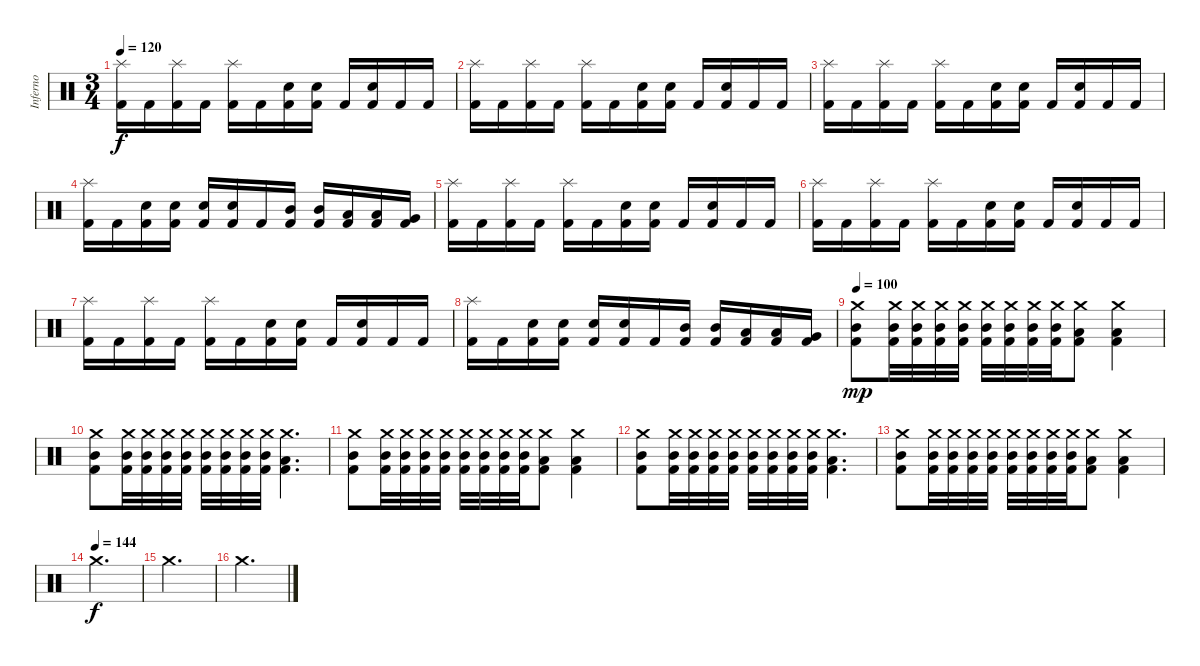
\track ("Inferno" "Inferno") {instrument percussion}
\staff {score}
\articulation defaults
\ts (3 4)
\tempo 120
\clef neutral
\ks c
("Splash (hit)" "Kick (hit) 2").16{dy f} "Kick (hit) 2".16 ("Splash (hit)" "Kick (hit) 2").16 "Kick (hit) 2".16 ("Splash (hit)" "Kick (hit) 2").16 "Kick (hit) 2".16 ("Electric Snare (hit)" "Kick (hit) 2").16 ("Electric Snare (hit)" "Kick (hit) 2").16 "Kick (hit) 2".16 ("Electric Snare (hit)" "Kick (hit) 2").16 "Kick (hit) 2".16 "Kick (hit) 2".16 |
("Splash (hit)" "Kick (hit) 2").16 "Kick (hit) 2".16 ("Splash (hit)" "Kick (hit) 2").16 "Kick (hit) 2".16 ("Splash (hit)" "Kick (hit) 2").16 "Kick (hit) 2".16 ("Electric Snare (hit)" "Kick (hit) 2").16 ("Electric Snare (hit)" "Kick (hit) 2").16 "Kick (hit) 2".16 ("Electric Snare (hit)" "Kick (hit) 2").16 "Kick (hit) 2".16 "Kick (hit) 2".16 |
("Splash (hit)" "Kick (hit) 2").16 "Kick (hit) 2".16 ("Splash (hit)" "Kick (hit) 2").16 "Kick (hit) 2".16 ("Splash (hit)" "Kick (hit) 2").16 "Kick (hit) 2".16 ("Electric Snare (hit)" "Kick (hit) 2").16 ("Electric Snare (hit)" "Kick (hit) 2").16 "Kick (hit) 2".16 ("Electric Snare (hit)" "Kick (hit) 2").16 "Kick (hit) 2".16 "Kick (hit) 2".16 |
("Splash (hit)" "Kick (hit) 2").16 "Kick (hit) 2".16 ("Electric Snare (hit)" "Kick (hit) 2").16 ("Electric Snare (hit)" "Kick (hit) 2").16 ("Electric Snare (hit)" "Kick (hit) 2").16 ("Electric Snare (hit)" "Kick (hit) 2").16 "Kick (hit) 2".16 ("Mid Tom (hit)" "Kick (hit) 2").16 ("Mid Tom (hit)" "Kick (hit) 2").16 ("Low Tom (hit)" "Kick (hit) 2").16 ("Low Tom (hit)" "Kick (hit) 2").16 ("Very Low Tom (hit)" "Kick (hit) 2").16 |
("Splash (hit)" "Kick (hit) 2").16 "Kick (hit) 2".16 ("Splash (hit)" "Kick (hit) 2").16 "Kick (hit) 2".16 ("Splash (hit)" "Kick (hit) 2").16 "Kick (hit) 2".16 ("Electric Snare (hit)" "Kick (hit) 2").16 ("Electric Snare (hit)" "Kick (hit) 2").16 "Kick (hit) 2".16 ("Electric Snare (hit)" "Kick (hit) 2").16 "Kick (hit) 2".16 "Kick (hit) 2".16 |
("Splash (hit)" "Kick (hit) 2").16 "Kick (hit) 2".16 ("Splash (hit)" "Kick (hit) 2").16 "Kick (hit) 2".16 ("Splash (hit)" "Kick (hit) 2").16 "Kick (hit) 2".16 ("Electric Snare (hit)" "Kick (hit) 2").16 ("Electric Snare (hit)" "Kick (hit) 2").16 "Kick (hit) 2".16 ("Electric Snare (hit)" "Kick (hit) 2").16 "Kick (hit) 2".16 "Kick (hit) 2".16 |
("Splash (hit)" "Kick (hit) 2").16 "Kick (hit) 2".16 ("Splash (hit)" "Kick (hit) 2").16 "Kick (hit) 2".16 ("Splash (hit)" "Kick (hit) 2").16 "Kick (hit) 2".16 ("Electric Snare (hit)" "Kick (hit) 2").16 ("Electric Snare (hit)" "Kick (hit) 2").16 "Kick (hit) 2".16 ("Electric Snare (hit)" "Kick (hit) 2").16 "Kick (hit) 2".16 "Kick (hit) 2".16 |
("Splash (hit)" "Kick (hit) 2").16 "Kick (hit) 2".16 ("Electric Snare (hit)" "Kick (hit) 2").16 ("Electric Snare (hit)" "Kick (hit) 2").16 ("Electric Snare (hit)" "Kick (hit) 2").16 ("Electric Snare (hit)" "Kick (hit) 2").16 "Kick (hit) 2".16 ("Mid Tom (hit)" "Kick (hit) 2").16 ("Mid Tom (hit)" "Kick (hit) 2").16 ("Low Tom (hit)" "Kick (hit) 2").16 ("Low Tom (hit)" "Kick (hit) 2").16 ("Very Low Tom (hit)" "Kick (hit) 2").16 |
\tempo 100
("Crash medium (hit)" "Mid Tom (hit)" "Kick (hit) 2").8{dy mp} ("Crash medium (hit)" "Mid Tom (hit)" "Kick (hit) 2").32 ("Crash medium (hit)" "Mid Tom (hit)" "Kick (hit) 2").32 ("Crash medium (hit)" "Mid Tom (hit)" "Kick (hit) 2").32 ("Crash medium (hit)" "Mid Tom (hit)" "Kick (hit) 2").32 ("Crash medium (hit)" "Mid Tom (hit)" "Kick (hit) 2").32 ("Crash medium (hit)" "Mid Tom (hit)" "Kick (hit) 2").32 ("Crash medium (hit)" "Mid Tom (hit)" "Kick (hit) 2").32 ("Crash medium (hit)" "Mid Tom (hit)" "Kick (hit) 2").32 ("Crash medium (hit)" "Low Tom (hit)" "Kick (hit) 2").8 ("Crash medium (hit)" "Low Tom (hit)" "Kick (hit) 2").4 |
("Crash medium (hit)" "Mid Tom (hit)" "Kick (hit) 2").8 ("Crash medium (hit)" "Mid Tom (hit)" "Kick (hit) 2").32 ("Crash medium (hit)" "Mid Tom (hit)" "Kick (hit) 2").32 ("Crash medium (hit)" "Mid Tom (hit)" "Kick (hit) 2").32 ("Crash medium (hit)" "Mid Tom (hit)" "Kick (hit) 2").32 ("Crash medium (hit)" "Mid Tom (hit)" "Kick (hit) 2").32 ("Crash medium (hit)" "Mid Tom (hit)" "Kick (hit) 2").32 ("Crash medium (hit)" "Mid Tom (hit)" "Kick (hit) 2").32 ("Crash medium (hit)" "Mid Tom (hit)" "Kick (hit) 2").32 ("Crash medium (hit)" "Low Tom (hit)" "Kick (hit) 2").4{d} |
("Crash medium (hit)" "Mid Tom (hit)" "Kick (hit) 2").8 ("Crash medium (hit)" "Mid Tom (hit)" "Kick (hit) 2").32 ("Crash medium (hit)" "Mid Tom (hit)" "Kick (hit) 2").32 ("Crash medium (hit)" "Mid Tom (hit)" "Kick (hit) 2").32 ("Crash medium (hit)" "Mid Tom (hit)" "Kick (hit) 2").32 ("Crash medium (hit)" "Mid Tom (hit)" "Kick (hit) 2").32 ("Crash medium (hit)" "Mid Tom (hit)" "Kick (hit) 2").32 ("Crash medium (hit)" "Mid Tom (hit)" "Kick (hit) 2").32 ("Crash medium (hit)" "Mid Tom (hit)" "Kick (hit) 2").32 ("Crash medium (hit)" "Low Tom (hit)" "Kick (hit) 2").8 ("Crash medium (hit)" "Low Tom (hit)" "Kick (hit) 2").4 |
("Crash medium (hit)" "Mid Tom (hit)" "Kick (hit) 2").8 ("Crash medium (hit)" "Mid Tom (hit)" "Kick (hit) 2").32 ("Crash medium (hit)" "Mid Tom (hit)" "Kick (hit) 2").32 ("Crash medium (hit)" "Mid Tom (hit)" "Kick (hit) 2").32 ("Crash medium (hit)" "Mid Tom (hit)" "Kick (hit) 2").32 ("Crash medium (hit)" "Mid Tom (hit)" "Kick (hit) 2").32 ("Crash medium (hit)" "Mid Tom (hit)" "Kick (hit) 2").32 ("Crash medium (hit)" "Mid Tom (hit)" "Kick (hit) 2").32 ("Crash medium (hit)" "Mid Tom (hit)" "Kick (hit) 2").32 ("Crash medium (hit)" "Low Tom (hit)" "Kick (hit) 2").4{d} |
("Crash medium (hit)" "Mid Tom (hit)" "Kick (hit) 2").8 ("Crash medium (hit)" "Mid Tom (hit)" "Kick (hit) 2").32 ("Crash medium (hit)" "Mid Tom (hit)" "Kick (hit) 2").32 ("Crash medium (hit)" "Mid Tom (hit)" "Kick (hit) 2").32 ("Crash medium (hit)" "Mid Tom (hit)" "Kick (hit) 2").32 ("Crash medium (hit)" "Mid Tom (hit)" "Kick (hit) 2").32 ("Crash medium (hit)" "Mid Tom (hit)" "Kick (hit) 2").32 ("Crash medium (hit)" "Mid Tom (hit)" "Kick (hit) 2").32 ("Crash medium (hit)" "Mid Tom (hit)" "Kick (hit) 2").32 ("Crash medium (hit)" "Low Tom (hit)" "Kick (hit) 2").8 ("Crash medium (hit)" "Low Tom (hit)" "Kick (hit) 2").4 |
\tempo (144)
"Crash medium (hit)".2{d dy f} |
"Crash medium (hit)".2{d} |
"Crash medium (hit)".2{d}
